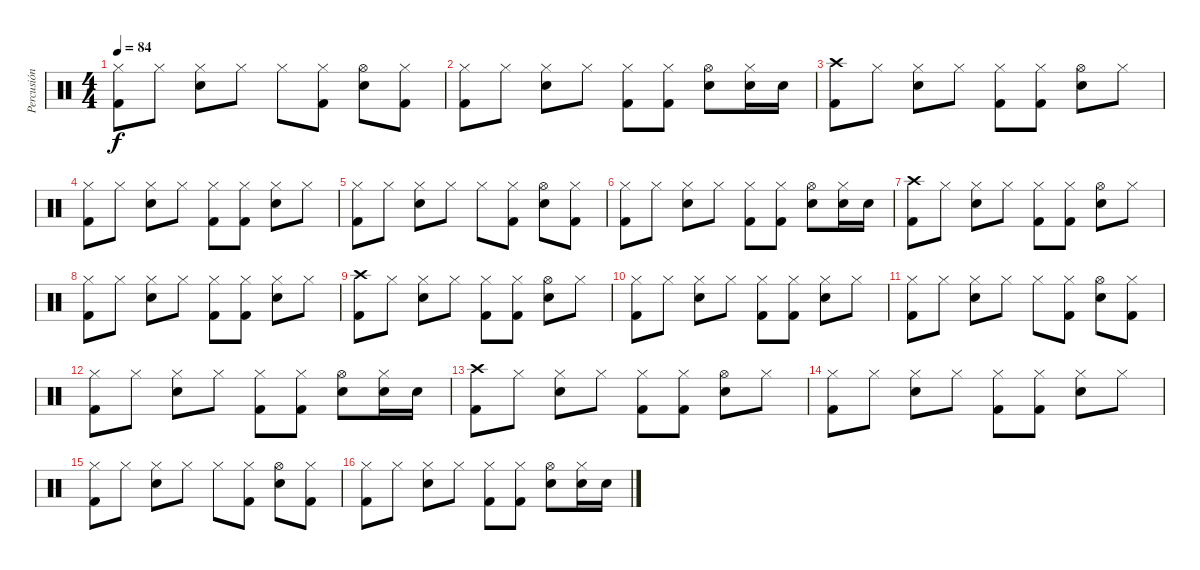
\track ("Percusión" "Percusión") {instrument percussion}
\staff {score}
\articulation defaults
\ts (4 4)
\tempo 84
\clef neutral
\ks c
("Hi-Hat (closed)" "Kick (hit) 2").8{dy f} "Hi-Hat (closed)".8 ("Hi-Hat (closed)" "Electric Snare (hit)").8 "Hi-Hat (closed)".8 "Hi-Hat (closed)".8 ("Hi-Hat (closed)" "Kick (hit) 2").8 ("Hi-Hat (open)" "Electric Snare (hit)").8 ("Hi-Hat (closed)" "Kick (hit) 2").8 |
("Hi-Hat (closed)" "Kick (hit) 2").8 "Hi-Hat (closed)".8 ("Hi-Hat (closed)" "Electric Snare (hit)").8 "Hi-Hat (closed)".8 ("Hi-Hat (closed)" "Kick (hit) 2").8 ("Hi-Hat (closed)" "Kick (hit) 2").8 ("Hi-Hat (open)" "Electric Snare (hit)").8 ("Hi-Hat (closed)" "Electric Snare (hit)").16 "Electric Snare (hit)".16 |
("Crash high (hit)" "Kick (hit) 2").8 "Hi-Hat (closed)".8 ("Hi-Hat (closed)" "Electric Snare (hit)").8 "Hi-Hat (closed)".8 ("Hi-Hat (closed)" "Kick (hit) 2").8 ("Hi-Hat (closed)" "Kick (hit) 2").8 ("Hi-Hat (open)" "Electric Snare (hit)").8 "Hi-Hat (closed)".8 |
("Hi-Hat (closed)" "Kick (hit) 2").8 "Hi-Hat (closed)".8 ("Hi-Hat (closed)" "Electric Snare (hit)").8 "Hi-Hat (closed)".8 ("Hi-Hat (closed)" "Kick (hit) 2").8 ("Hi-Hat (closed)" "Kick (hit) 2").8 ("Hi-Hat (closed)" "Electric Snare (hit)").8 "Hi-Hat (closed)".8 |
("Hi-Hat (closed)" "Kick (hit) 2").8 "Hi-Hat (closed)".8 ("Hi-Hat (closed)" "Electric Snare (hit)").8 "Hi-Hat (closed)".8 "Hi-Hat (closed)".8 ("Hi-Hat (closed)" "Kick (hit) 2").8 ("Hi-Hat (open)" "Electric Snare (hit)").8 ("Hi-Hat (closed)" "Kick (hit) 2").8 |
("Hi-Hat (closed)" "Kick (hit) 2").8 "Hi-Hat (closed)".8 ("Hi-Hat (closed)" "Electric Snare (hit)").8 "Hi-Hat (closed)".8 ("Hi-Hat (closed)" "Kick (hit) 2").8 ("Hi-Hat (closed)" "Kick (hit) 2").8 ("Hi-Hat (open)" "Electric Snare (hit)").8 ("Hi-Hat (closed)" "Electric Snare (hit)").16 "Electric Snare (hit)".16 |
("Crash high (hit)" "Kick (hit) 2").8 "Hi-Hat (closed)".8 ("Hi-Hat (closed)" "Electric Snare (hit)").8 "Hi-Hat (closed)".8 ("Hi-Hat (closed)" "Kick (hit) 2").8 ("Hi-Hat (closed)" "Kick (hit) 2").8 ("Hi-Hat (open)" "Electric Snare (hit)").8 "Hi-Hat (closed)".8 |
("Hi-Hat (closed)" "Kick (hit) 2").8 "Hi-Hat (closed)".8 ("Hi-Hat (closed)" "Electric Snare (hit)").8 "Hi-Hat (closed)".8 ("Hi-Hat (closed)" "Kick (hit) 2").8 ("Hi-Hat (closed)" "Kick (hit) 2").8 ("Hi-Hat (closed)" "Electric Snare (hit)").8 "Hi-Hat (closed)".8 |
("Crash high (hit)" "Kick (hit) 2").8 "Hi-Hat (closed)".8 ("Hi-Hat (closed)" "Electric Snare (hit)").8 "Hi-Hat (closed)".8 ("Hi-Hat (closed)" "Kick (hit) 2").8 ("Hi-Hat (closed)" "Kick (hit) 2").8 ("Hi-Hat (open)" "Electric Snare (hit)").8 "Hi-Hat (closed)".8 |
("Hi-Hat (closed)" "Kick (hit) 2").8 "Hi-Hat (closed)".8 ("Hi-Hat (closed)" "Electric Snare (hit)").8 "Hi-Hat (closed)".8 ("Hi-Hat (closed)" "Kick (hit) 2").8 ("Hi-Hat (closed)" "Kick (hit) 2").8 ("Hi-Hat (closed)" "Electric Snare (hit)").8 "Hi-Hat (closed)".8 |
("Hi-Hat (closed)" "Kick (hit) 2").8 "Hi-Hat (closed)".8 ("Hi-Hat (closed)" "Electric Snare (hit)").8 "Hi-Hat (closed)".8 "Hi-Hat (closed)".8 ("Hi-Hat (closed)" "Kick (hit) 2").8 ("Hi-Hat (open)" "Electric Snare (hit)").8 ("Hi-Hat (closed)" "Kick (hit) 2").8 |
("Hi-Hat (closed)" "Kick (hit) 2").8 "Hi-Hat (closed)".8 ("Hi-Hat (closed)" "Electric Snare (hit)").8 "Hi-Hat (closed)".8 ("Hi-Hat (closed)" "Kick (hit) 2").8 ("Hi-Hat (closed)" "Kick (hit) 2").8 ("Hi-Hat (open)" "Electric Snare (hit)").8 ("Hi-Hat (closed)" "Electric Snare (hit)").16 "Electric Snare (hit)".16 |
("Crash high (hit)" "Kick (hit) 2").8 "Hi-Hat (closed)".8 ("Hi-Hat (closed)" "Electric Snare (hit)").8 "Hi-Hat (closed)".8 ("Hi-Hat (closed)" "Kick (hit) 2").8 ("Hi-Hat (closed)" "Kick (hit) 2").8 ("Hi-Hat (open)" "Electric Snare (hit)").8 "Hi-Hat (closed)".8 |
("Hi-Hat (closed)" "Kick (hit) 2").8 "Hi-Hat (closed)".8 ("Hi-Hat (closed)" "Electric Snare (hit)").8 "Hi-Hat (closed)".8 ("Hi-Hat (closed)" "Kick (hit) 2").8 ("Hi-Hat (closed)" "Kick (hit) 2").8 ("Hi-Hat (closed)" "Electric Snare (hit)").8 "Hi-Hat (closed)".8 |
("Hi-Hat (closed)" "Kick (hit) 2").8 "Hi-Hat (closed)".8 ("Hi-Hat (closed)" "Electric Snare (hit)").8 "Hi-Hat (closed)".8 "Hi-Hat (closed)".8 ("Hi-Hat (closed)" "Kick (hit) 2").8 ("Hi-Hat (open)" "Electric Snare (hit)").8 ("Hi-Hat (closed)" "Kick (hit) 2").8 |
("Hi-Hat (closed)" "Kick (hit) 2").8 "Hi-Hat (closed)".8 ("Hi-Hat (closed)" "Electric Snare (hit)").8 "Hi-Hat (closed)".8 ("Hi-Hat (closed)" "Kick (hit) 2").8 ("Hi-Hat (closed)" "Kick (hit) 2").8 ("Hi-Hat (open)" "Electric Snare (hit)").8 ("Hi-Hat (closed)" "Electric Snare (hit)").16 "Electric Snare (hit)".16
